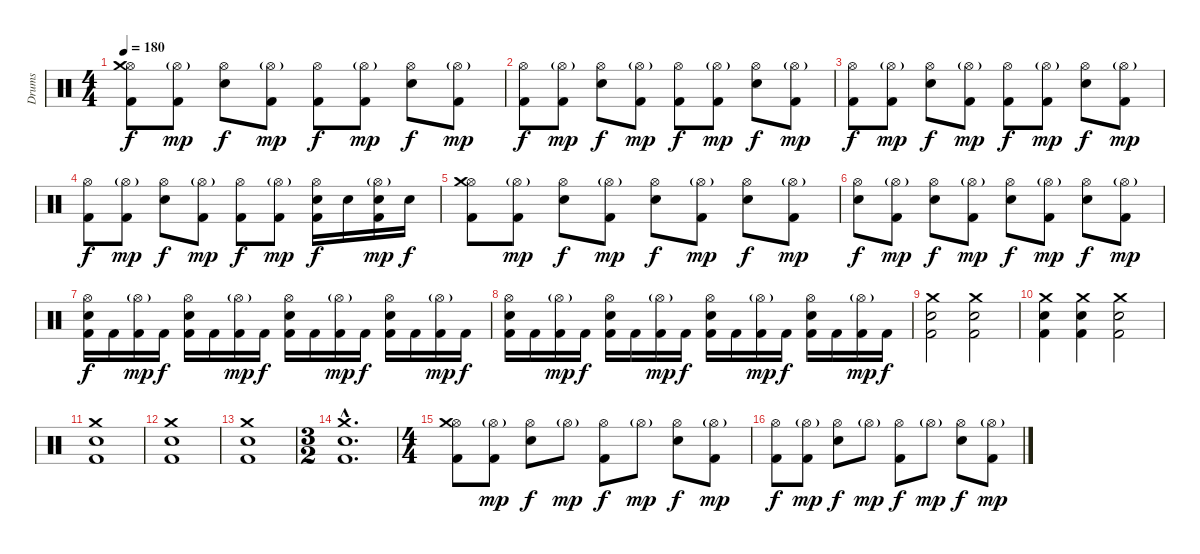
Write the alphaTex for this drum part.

\track ("Drums" "Drums") {instrument percussion}
\staff {score}
\articulation defaults
\ts (4 4)
\tempo 180
\clef neutral
\ks c
("Hi-Hat (open)" "Crash medium (hit)" "Kick (hit) 2").8{dy f} ("Hi-Hat (open)"{g} "Kick (hit) 2").8{dy mp} ("Hi-Hat (open)" "Electric Snare (hit)").8{dy f} ("Hi-Hat (open)"{g} "Kick (hit) 2").8{dy mp} ("Hi-Hat (open)" "Kick (hit) 2").8{dy f} ("Hi-Hat (open)"{g} "Kick (hit) 2").8{dy mp} ("Hi-Hat (open)" "Electric Snare (hit)").8{dy f} ("Hi-Hat (open)"{g} "Kick (hit) 2").8{dy mp} |
("Hi-Hat (open)" "Kick (hit) 2").8{dy f} ("Hi-Hat (open)"{g} "Kick (hit) 2").8{dy mp} ("Hi-Hat (open)" "Electric Snare (hit)").8{dy f} ("Hi-Hat (open)"{g} "Kick (hit) 2").8{dy mp} ("Hi-Hat (open)" "Kick (hit) 2").8{dy f} ("Hi-Hat (open)"{g} "Kick (hit) 2").8{dy mp} ("Hi-Hat (open)" "Electric Snare (hit)").8{dy f} ("Hi-Hat (open)"{g} "Kick (hit) 2").8{dy mp} |
("Hi-Hat (open)" "Kick (hit) 2").8{dy f} ("Hi-Hat (open)"{g} "Kick (hit) 2").8{dy mp} ("Hi-Hat (open)" "Electric Snare (hit)").8{dy f} ("Hi-Hat (open)"{g} "Kick (hit) 2").8{dy mp} ("Hi-Hat (open)" "Kick (hit) 2").8{dy f} ("Hi-Hat (open)"{g} "Kick (hit) 2").8{dy mp} ("Hi-Hat (open)" "Electric Snare (hit)").8{dy f} ("Hi-Hat (open)"{g} "Kick (hit) 2").8{dy mp} |
("Hi-Hat (open)" "Kick (hit) 2").8{dy f} ("Hi-Hat (open)"{g} "Kick (hit) 2").8{dy mp} ("Hi-Hat (open)" "Electric Snare (hit)").8{dy f} ("Hi-Hat (open)"{g} "Kick (hit) 2").8{dy mp} ("Hi-Hat (open)" "Kick (hit) 2").8{dy f} ("Hi-Hat (open)"{g} "Kick (hit) 2").8{dy mp} ("Hi-Hat (open)" "Electric Snare (hit)" "Kick (hit) 2").16{dy f} "Electric Snare (hit)".16 ("Hi-Hat (open)"{g} "Electric Snare (hit)" "Kick (hit) 2").16{dy mp} "Electric Snare (hit)".16{dy f} |
("Hi-Hat (open)" "Crash medium (hit)" "Kick (hit) 2").8 ("Hi-Hat (open)"{g} "Kick (hit) 2").8{dy mp} ("Hi-Hat (open)" "Electric Snare (hit)").8{dy f} ("Hi-Hat (open)"{g} "Kick (hit) 2").8{dy mp} ("Hi-Hat (open)" "Electric Snare (hit)").8{dy f} ("Hi-Hat (open)"{g} "Kick (hit) 2").8{dy mp} ("Hi-Hat (open)" "Electric Snare (hit)").8{dy f} ("Hi-Hat (open)"{g} "Kick (hit) 2").8{dy mp} |
("Hi-Hat (open)" "Electric Snare (hit)").8{dy f} ("Hi-Hat (open)"{g} "Kick (hit) 2").8{dy mp} ("Hi-Hat (open)" "Electric Snare (hit)").8{dy f} ("Hi-Hat (open)"{g} "Kick (hit) 2").8{dy mp} ("Hi-Hat (open)" "Electric Snare (hit)").8{dy f} ("Hi-Hat (open)"{g} "Kick (hit) 2").8{dy mp} ("Hi-Hat (open)" "Electric Snare (hit)").8{dy f} ("Hi-Hat (open)"{g} "Kick (hit) 2").8{dy mp} |
("Hi-Hat (open)" "Electric Snare (hit)" "Kick (hit) 2").16{dy f} "Kick (hit) 2".16 ("Hi-Hat (open)"{g} "Kick (hit) 2").16{dy mp} "Kick (hit) 2".16{dy f} ("Hi-Hat (open)" "Electric Snare (hit)" "Kick (hit) 2").16 "Kick (hit) 2".16 ("Hi-Hat (open)"{g} "Kick (hit) 2").16{dy mp} "Kick (hit) 2".16{dy f} ("Hi-Hat (open)" "Electric Snare (hit)" "Kick (hit) 2").16 "Kick (hit) 2".16 ("Hi-Hat (open)"{g} "Kick (hit) 2").16{dy mp} "Kick (hit) 2".16{dy f} ("Hi-Hat (open)" "Electric Snare (hit)" "Kick (hit) 2").16 "Kick (hit) 2".16 ("Hi-Hat (open)"{g} "Kick (hit) 2").16{dy mp} "Kick (hit) 2".16{dy f} |
("Hi-Hat (open)" "Electric Snare (hit)" "Kick (hit) 2").16 "Kick (hit) 2".16 ("Hi-Hat (open)"{g} "Kick (hit) 2").16{dy mp} "Kick (hit) 2".16{dy f} ("Hi-Hat (open)" "Electric Snare (hit)" "Kick (hit) 2").16 "Kick (hit) 2".16 ("Hi-Hat (open)"{g} "Kick (hit) 2").16{dy mp} "Kick (hit) 2".16{dy f} ("Hi-Hat (open)" "Electric Snare (hit)" "Kick (hit) 2").16 "Kick (hit) 2".16 ("Hi-Hat (open)"{g} "Kick (hit) 2").16{dy mp} "Kick (hit) 2".16{dy f} ("Hi-Hat (open)" "Electric Snare (hit)" "Kick (hit) 2").16 "Kick (hit) 2".16 ("Hi-Hat (open)"{g} "Kick (hit) 2").16{dy mp} "Kick (hit) 2".16{dy f} |
("Crash medium (hit)" "Electric Snare (hit)" "Kick (hit) 2").2 ("Crash medium (hit)" "Electric Snare (hit)" "Kick (hit) 2").2 |
("Crash medium (hit)" "Electric Snare (hit)" "Kick (hit) 2").4 ("Crash medium (hit)" "Electric Snare (hit)" "Kick (hit) 2").4 ("Crash medium (hit)" "Electric Snare (hit)" "Kick (hit) 2").2 |
("Crash medium (hit)" "Electric Snare (hit)" "Kick (hit) 2").1 |
("Crash medium (hit)" "Electric Snare (hit)" "Kick (hit) 2").1 |
("Crash medium (hit)" "Electric Snare (hit)" "Kick (hit) 2").1 |
\ts (3 2)
("Crash medium (hit)"{hac} "Electric Snare (hit)"{hac} "Kick (hit) 2"{hac}).1{d} |
\ts (4 4)
("Hi-Hat (open)" "Crash medium (hit)" "Kick (hit) 2").8 ("Hi-Hat (open)"{g} "Kick (hit) 2").8{dy mp} ("Hi-Hat (open)" "Electric Snare (hit)").8{dy f} "Hi-Hat (open)"{g}.8{dy mp} ("Hi-Hat (open)" "Kick (hit) 2").8{dy f} "Hi-Hat (open)"{g}.8{dy mp} ("Hi-Hat (open)" "Electric Snare (hit)").8{dy f} ("Hi-Hat (open)"{g} "Kick (hit) 2").8{dy mp} |
("Hi-Hat (open)" "Kick (hit) 2").8{dy f} ("Hi-Hat (open)"{g} "Kick (hit) 2").8{dy mp} ("Hi-Hat (open)" "Electric Snare (hit)").8{dy f} "Hi-Hat (open)"{g}.8{dy mp} ("Hi-Hat (open)" "Kick (hit) 2").8{dy f} "Hi-Hat (open)"{g}.8{dy mp} ("Hi-Hat (open)" "Electric Snare (hit)").8{dy f} ("Hi-Hat (open)"{g} "Kick (hit) 2").8{dy mp}
